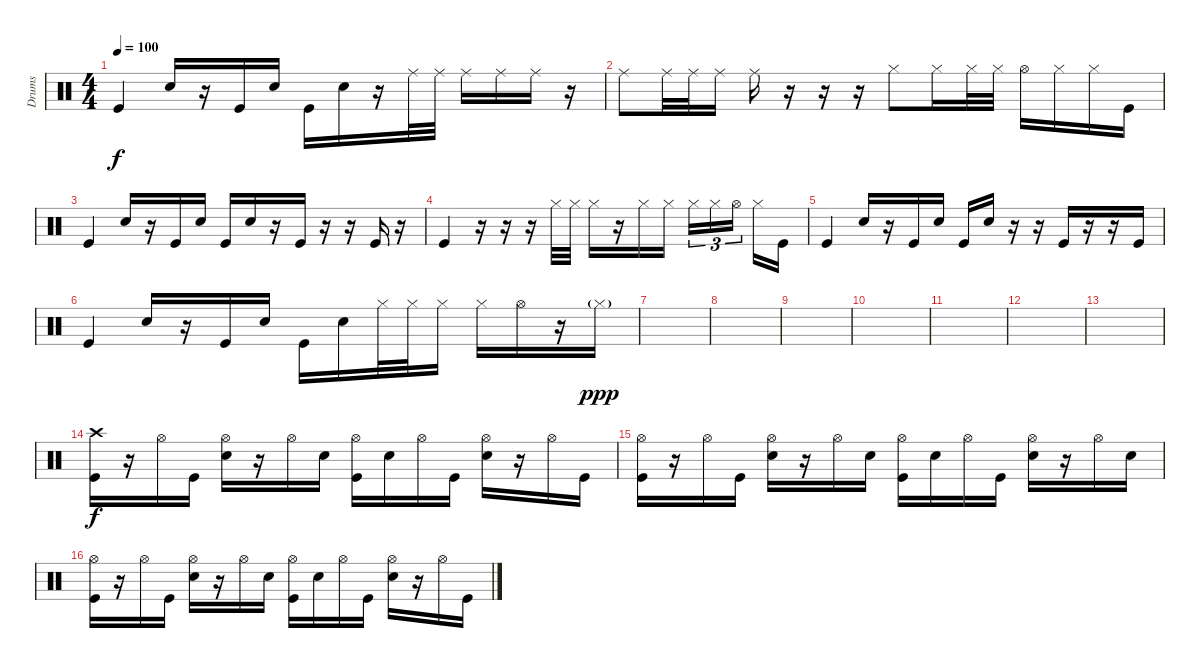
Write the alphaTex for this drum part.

\track ("Drums" "Drums") {instrument percussion}
\staff {score}
\articulation defaults
\ts (4 4)
\tempo 100
\clef neutral
\ks c "Kick (hit)".4{dy f} "Electric Snare (hit)".16
r.16 "Kick (hit)".16 "Electric Snare (hit)".16 "Kick (hit)".16 "Electric Snare (hit)".16 r.16 "Ride (middle)".32 "Ride (middle)".32 "Ride (middle)".16 "Ride (middle)".16 "Ride (middle)".16 r.16 |
"Ride (middle)".8 "Ride (middle)".32 "Ride (middle)".32 "Ride (middle)".16 "Ride (middle)".16 r.16 r.16 r.16 "Hi-Hat (closed)".8 "Hi-Hat (closed)".16 "Hi-Hat (closed)".32 "Hi-Hat (closed)".32 "Hi-Hat (open)".16 "Hi-Hat (closed)".16 "Hi-Hat (closed)".16 "Kick (hit)".16 |
"Kick (hit)".4 "Electric Snare (hit)".16 r.16 "Kick (hit)".16 "Electric Snare (hit)".16 "Kick (hit)".16 "Electric Snare (hit)".16 r.16 "Kick (hit)".16 r.16 r.16 "Kick (hit)".16 r.16 |
"Kick (hit)".4 r.16 r.16 r.16 "Hi-Hat (closed)".32 "Hi-Hat (closed)".32 "Hi-Hat (closed)".16 r.16 "Hi-Hat (closed)".16 "Hi-Hat (closed)".16 "Hi-Hat (closed)".16{tu (3 2)} "Hi-Hat (closed)".16{tu (3 2)} "Hi-Hat (open)".16{tu (3 2) beam splitsecondary} "Hi-Hat (closed)".16 "Kick (hit)".16 |
"Kick (hit)".4 "Electric Snare (hit)".16 r.16 "Kick (hit)".16 "Electric Snare (hit)".16 "Kick (hit)".16 "Electric Snare (hit)".16 r.16 r.16 "Kick (hit)".16 r.16 r.16 "Kick (hit)".16 |
"Kick (hit)".4 "Electric Snare (hit)".16 r.16 "Kick (hit)".16 "Electric Snare (hit)".16 "Kick (hit)".16 "Electric Snare (hit)".16 "Hi-Hat (closed)".32 "Hi-Hat (closed)".32 "Hi-Hat (closed)".16 "Hi-Hat (closed)".16 "Hi-Hat (open)".16 r.16 "Hi-Hat (closed)"{g}.16{dy ppp} |
|
|
|
|
|
|
|
("Crash high (hit)" "Kick (hit)").16{dy f} r.16 "Hi-Hat (open)".16 "Kick (hit)".16 ("Hi-Hat (open)" "Electric Snare (hit)").16 r.16 "Hi-Hat (open)".16 "Electric Snare (hit)".16 ("Hi-Hat (open)" "Kick (hit)").16 "Electric Snare (hit)".16 "Hi-Hat (open)".16 "Kick (hit)".16 ("Hi-Hat (open)" "Electric Snare (hit)").16 r.16 "Hi-Hat (open)".16 "Kick (hit)".16 |
("Hi-Hat (open)" "Kick (hit)").16 r.16 "Hi-Hat (open)".16 "Kick (hit)".16 ("Hi-Hat (open)" "Electric Snare (hit)").16 r.16 "Hi-Hat (open)".16 "Electric Snare (hit)".16 ("Hi-Hat (open)" "Kick (hit)").16 "Electric Snare (hit)".16 "Hi-Hat (open)".16 "Kick (hit)".16 ("Hi-Hat (open)" "Electric Snare (hit)").16 r.16 "Hi-Hat (open)".16 "Electric Snare (hit)".16 |
("Hi-Hat (open)" "Kick (hit)").16 r.16 "Hi-Hat (open)".16 "Kick (hit)".16 ("Hi-Hat (open)" "Electric Snare (hit)").16 r.16 "Hi-Hat (open)".16 "Electric Snare (hit)".16 ("Hi-Hat (open)" "Kick (hit)").16 "Electric Snare (hit)".16 "Hi-Hat (open)".16 "Kick (hit)".16 ("Hi-Hat (open)" "Electric Snare (hit)").16 r.16 "Hi-Hat (open)".16 "Kick (hit)".16
